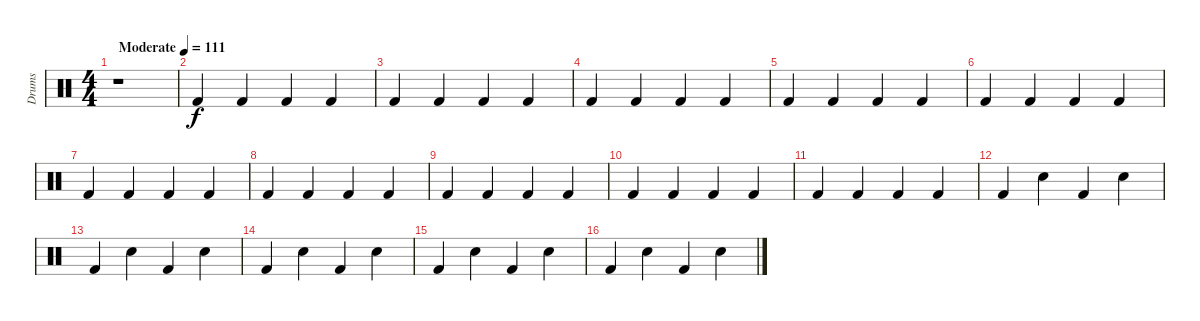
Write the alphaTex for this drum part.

\track ("Drums" "Drums") {instrument percussion}
\staff {score}
\articulation defaults
\ts (4 4)
\tempo (111 "Moderate")
\clef neutral
\ks c
r.1{dy f} |
"Kick (hit) 2".4 "Kick (hit) 2".4 "Kick (hit) 2".4 "Kick (hit) 2".4 |
"Kick (hit) 2".4 "Kick (hit) 2".4 "Kick (hit) 2".4 "Kick (hit) 2".4 |
"Kick (hit) 2".4 "Kick (hit) 2".4 "Kick (hit) 2".4 "Kick (hit) 2".4 |
"Kick (hit) 2".4 "Kick (hit) 2".4 "Kick (hit) 2".4 "Kick (hit) 2".4 |
"Kick (hit) 2".4 "Kick (hit) 2".4 "Kick (hit) 2".4 "Kick (hit) 2".4 |
"Kick (hit) 2".4 "Kick (hit) 2".4 "Kick (hit) 2".4 "Kick (hit) 2".4 |
"Kick (hit) 2".4 "Kick (hit) 2".4 "Kick (hit) 2".4 "Kick (hit) 2".4 |
"Kick (hit) 2".4 "Kick (hit) 2".4 "Kick (hit) 2".4 "Kick (hit) 2".4 |
"Kick (hit) 2".4 "Kick (hit) 2".4 "Kick (hit) 2".4 "Kick (hit) 2".4 |
"Kick (hit) 2".4 "Kick (hit) 2".4 "Kick (hit) 2".4 "Kick (hit) 2".4 |
"Kick (hit) 2".4 "Electric Snare (hit)".4 "Kick (hit) 2".4 "Electric Snare (hit)".4 |
"Kick (hit) 2".4 "Electric Snare (hit)".4 "Kick (hit) 2".4 "Electric Snare (hit)".4 |
"Kick (hit) 2".4 "Electric Snare (hit)".4 "Kick (hit) 2".4 "Electric Snare (hit)".4 |
"Kick (hit) 2".4 "Electric Snare (hit)".4 "Kick (hit) 2".4 "Electric Snare (hit)".4 |
"Kick (hit) 2".4 "Electric Snare (hit)".4 "Kick (hit) 2".4 "Electric Snare (hit)".4
